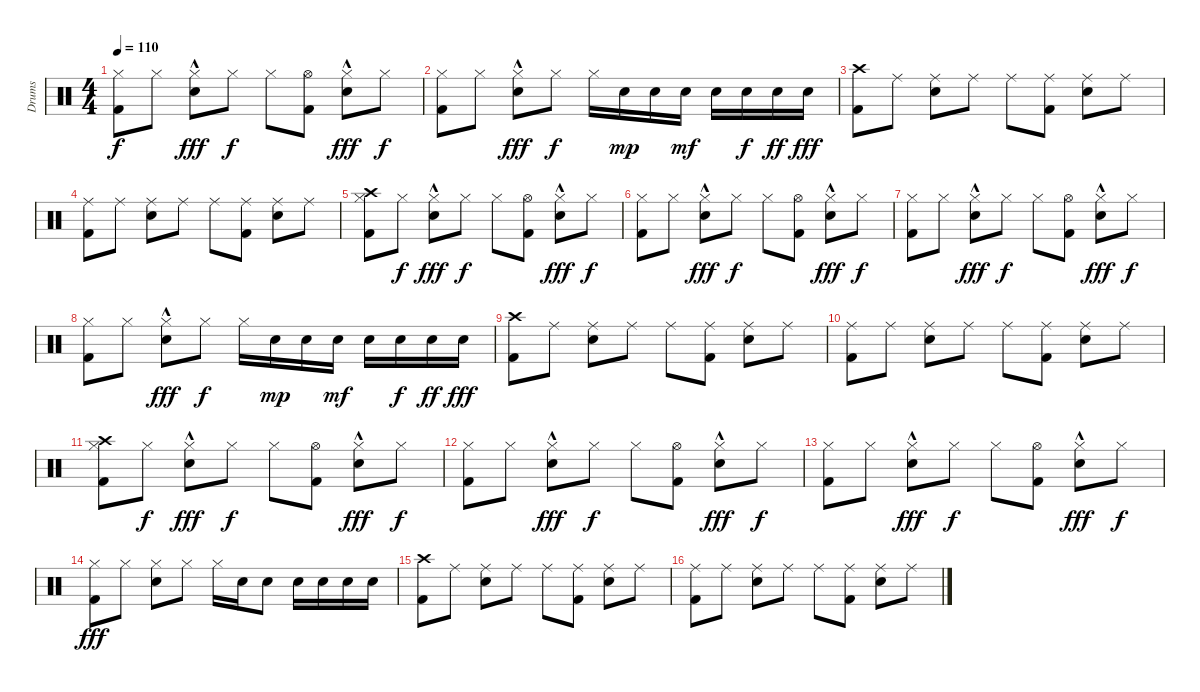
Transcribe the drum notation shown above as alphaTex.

\track ("Drums" "Drums") {instrument percussion}
\staff {score}
\articulation defaults
\ts (4 4)
\tempo 110
\clef neutral
\ks c
("Hi-Hat (closed)" "Kick (hit) 2").8{dy f} "Hi-Hat (closed)".8 ("Hi-Hat (closed)"{hac} "Snare (hit) 2").8{dy fff} "Hi-Hat (closed)".8{dy f} "Hi-Hat (closed)".8 ("Hi-Hat (open)" "Kick (hit) 2").8 ("Hi-Hat (closed)"{hac} "Snare (hit) 2").8{dy fff} "Hi-Hat (closed)".8{dy f} |
("Hi-Hat (closed)" "Kick (hit) 2").8 "Hi-Hat (closed)".8 ("Hi-Hat (closed)"{hac} "Snare (hit) 2").8{dy fff} "Hi-Hat (closed)".8{dy f} "Hi-Hat (closed)".16 "Snare (hit) 2".16{dy mp} "Snare (hit) 2".16 "Snare (hit) 2".16{dy mf} "Snare (hit) 2".16 "Snare (hit) 2".16{dy f} "Snare (hit) 2".16{dy ff} "Snare (hit) 2".16{dy fff} |
("Crash high (hit)" "Kick (hit) 2").8 "Ride (middle)".8 ("Ride (middle)" "Snare (hit) 2").8 "Ride (middle)".8 "Ride (middle)".8 ("Ride (middle)" "Kick (hit) 2").8 ("Ride (middle)" "Snare (hit) 2").8 "Ride (middle)".8 |
("Ride (middle)" "Kick (hit) 2").8 "Ride (middle)".8 ("Ride (middle)" "Snare (hit) 2").8 "Ride (middle)".8 "Ride (middle)".8 ("Ride (middle)" "Kick (hit) 2").8 ("Ride (middle)" "Snare (hit) 2").8 "Ride (middle)".8 |
("Crash high (hit)" "Hi-Hat (closed)" "Kick (hit) 2").8 "Hi-Hat (closed)".8{dy f} ("Hi-Hat (closed)"{hac} "Snare (hit) 2").8{dy fff} "Hi-Hat (closed)".8{dy f} "Hi-Hat (closed)".8 ("Hi-Hat (open)" "Kick (hit) 2").8 ("Hi-Hat (closed)"{hac} "Snare (hit) 2").8{dy fff} "Hi-Hat (closed)".8{dy f} |
("Hi-Hat (closed)" "Kick (hit) 2").8 "Hi-Hat (closed)".8 ("Hi-Hat (closed)"{hac} "Snare (hit) 2").8{dy fff} "Hi-Hat (closed)".8{dy f} "Hi-Hat (closed)".8 ("Hi-Hat (open)" "Kick (hit) 2").8 ("Hi-Hat (closed)"{hac} "Snare (hit) 2").8{dy fff} "Hi-Hat (closed)".8{dy f} |
("Hi-Hat (closed)" "Kick (hit) 2").8 "Hi-Hat (closed)".8 ("Hi-Hat (closed)"{hac} "Snare (hit) 2").8{dy fff} "Hi-Hat (closed)".8{dy f} "Hi-Hat (closed)".8 ("Hi-Hat (open)" "Kick (hit) 2").8 ("Hi-Hat (closed)"{hac} "Snare (hit) 2").8{dy fff} "Hi-Hat (closed)".8{dy f} |
("Hi-Hat (closed)" "Kick (hit) 2").8 "Hi-Hat (closed)".8 ("Hi-Hat (closed)"{hac} "Snare (hit) 2").8{dy fff} "Hi-Hat (closed)".8{dy f} "Hi-Hat (closed)".16 "Snare (hit) 2".16{dy mp} "Snare (hit) 2".16 "Snare (hit) 2".16{dy mf} "Snare (hit) 2".16 "Snare (hit) 2".16{dy f} "Snare (hit) 2".16{dy ff} "Snare (hit) 2".16{dy fff} |
("Crash high (hit)" "Kick (hit) 2").8 "Ride (middle)".8 ("Ride (middle)" "Snare (hit) 2").8 "Ride (middle)".8 "Ride (middle)".8 ("Ride (middle)" "Kick (hit) 2").8 ("Ride (middle)" "Snare (hit) 2").8 "Ride (middle)".8 |
("Ride (middle)" "Kick (hit) 2").8 "Ride (middle)".8 ("Ride (middle)" "Snare (hit) 2").8 "Ride (middle)".8 "Ride (middle)".8 ("Ride (middle)" "Kick (hit) 2").8 ("Ride (middle)" "Snare (hit) 2").8 "Ride (middle)".8 |
("Crash high (hit)" "Hi-Hat (closed)" "Kick (hit) 2").8 "Hi-Hat (closed)".8{dy f} ("Hi-Hat (closed)"{hac} "Snare (hit) 2").8{dy fff} "Hi-Hat (closed)".8{dy f} "Hi-Hat (closed)".8 ("Hi-Hat (open)" "Kick (hit) 2").8 ("Hi-Hat (closed)"{hac} "Snare (hit) 2").8{dy fff} "Hi-Hat (closed)".8{dy f} |
("Hi-Hat (closed)" "Kick (hit) 2").8 "Hi-Hat (closed)".8 ("Hi-Hat (closed)"{hac} "Snare (hit) 2").8{dy fff} "Hi-Hat (closed)".8{dy f} "Hi-Hat (closed)".8 ("Hi-Hat (open)" "Kick (hit) 2").8 ("Hi-Hat (closed)"{hac} "Snare (hit) 2").8{dy fff} "Hi-Hat (closed)".8{dy f} |
("Hi-Hat (closed)" "Kick (hit) 2").8 "Hi-Hat (closed)".8 ("Hi-Hat (closed)"{hac} "Snare (hit) 2").8{dy fff} "Hi-Hat (closed)".8{dy f} "Hi-Hat (closed)".8 ("Hi-Hat (open)" "Kick (hit) 2").8 ("Hi-Hat (closed)"{hac} "Snare (hit) 2").8{dy fff} "Hi-Hat (closed)".8{dy f} |
("Hi-Hat (closed)" "Kick (hit) 2").8{dy fff} "Hi-Hat (closed)".8 ("Hi-Hat (closed)" "Snare (hit) 2").8 "Hi-Hat (closed)".8 "Hi-Hat (closed)".16 "Snare (hit) 2".16 "Snare (hit) 2".8 "Snare (hit) 2".16 "Snare (hit) 2".16 "Snare (hit) 2".16 "Snare (hit) 2".16 |
("Crash high (hit)" "Kick (hit) 2").8 "Ride (middle)".8 ("Ride (middle)" "Snare (hit) 2").8 "Ride (middle)".8 "Ride (middle)".8 ("Ride (middle)" "Kick (hit) 2").8 ("Ride (middle)" "Snare (hit) 2").8 "Ride (middle)".8 |
("Ride (middle)" "Kick (hit) 2").8 "Ride (middle)".8 ("Ride (middle)" "Snare (hit) 2").8 "Ride (middle)".8 "Ride (middle)".8 ("Ride (middle)" "Kick (hit) 2").8 ("Ride (middle)" "Snare (hit) 2").8 "Ride (middle)".8
